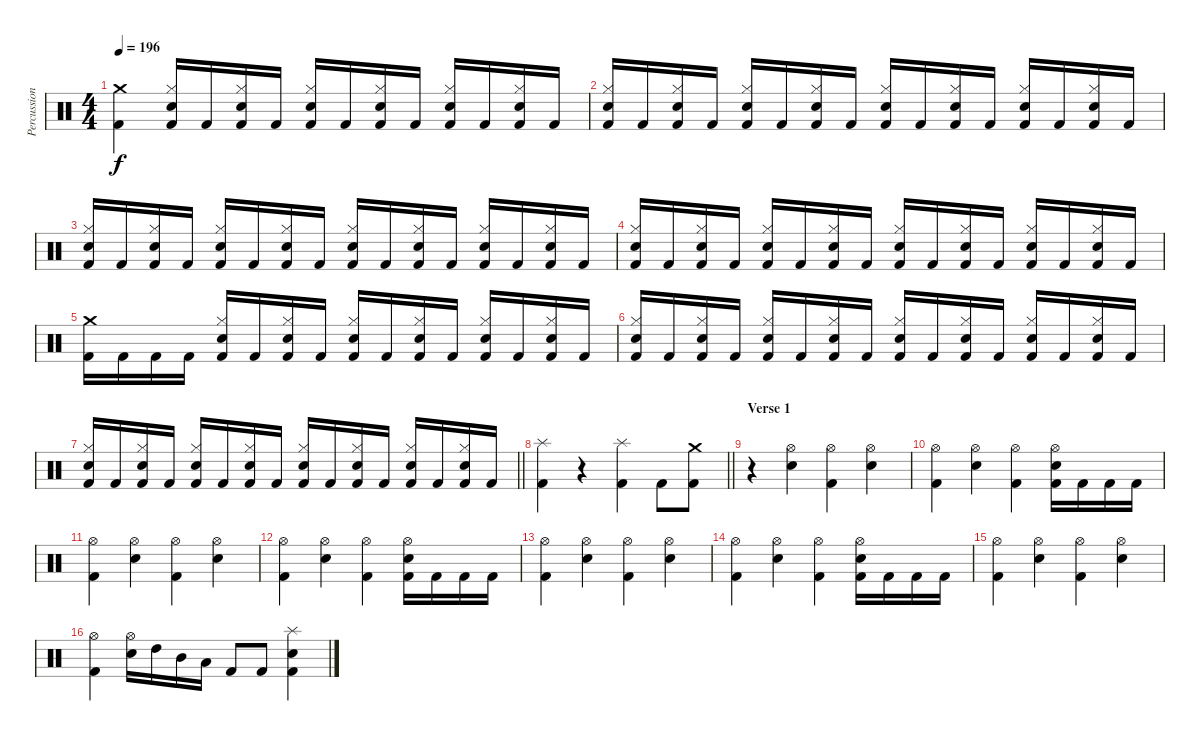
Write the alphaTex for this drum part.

\track ("Percussion" "Percussion") {instrument percussion}
\staff {score}
\articulation defaults
\ts (4 4)
\tempo 196
\clef neutral
\ks c
("Crash medium (hit)" "Kick (hit) 2").4{dy f} ("Hi-Hat (closed)" "Electric Snare (hit)" "Kick (hit) 2").16 "Kick (hit) 2".16 ("Hi-Hat (closed)" "Electric Snare (hit)" "Kick (hit) 2").16 "Kick (hit) 2".16 ("Hi-Hat (closed)" "Electric Snare (hit)" "Kick (hit) 2").16 "Kick (hit) 2".16 ("Hi-Hat (closed)" "Electric Snare (hit)" "Kick (hit) 2").16 "Kick (hit) 2".16 ("Hi-Hat (closed)" "Electric Snare (hit)" "Kick (hit) 2").16 "Kick (hit) 2".16 ("Hi-Hat (closed)" "Electric Snare (hit)" "Kick (hit) 2").16 "Kick (hit) 2".16 |
("Hi-Hat (closed)" "Electric Snare (hit)" "Kick (hit) 2").16 "Kick (hit) 2".16 ("Hi-Hat (closed)" "Electric Snare (hit)" "Kick (hit) 2").16 "Kick (hit) 2".16 ("Hi-Hat (closed)" "Electric Snare (hit)" "Kick (hit) 2").16 "Kick (hit) 2".16 ("Hi-Hat (closed)" "Electric Snare (hit)" "Kick (hit) 2").16 "Kick (hit) 2".16 ("Hi-Hat (closed)" "Electric Snare (hit)" "Kick (hit) 2").16 "Kick (hit) 2".16 ("Hi-Hat (closed)" "Electric Snare (hit)" "Kick (hit) 2").16 "Kick (hit) 2".16 ("Hi-Hat (closed)" "Electric Snare (hit)" "Kick (hit) 2").16 "Kick (hit) 2".16 ("Hi-Hat (closed)" "Electric Snare (hit)" "Kick (hit) 2").16 "Kick (hit) 2".16 |
("Hi-Hat (closed)" "Electric Snare (hit)" "Kick (hit) 2").16 "Kick (hit) 2".16 ("Hi-Hat (closed)" "Electric Snare (hit)" "Kick (hit) 2").16 "Kick (hit) 2".16 ("Hi-Hat (closed)" "Electric Snare (hit)" "Kick (hit) 2").16 "Kick (hit) 2".16 ("Hi-Hat (closed)" "Electric Snare (hit)" "Kick (hit) 2").16 "Kick (hit) 2".16 ("Hi-Hat (closed)" "Electric Snare (hit)" "Kick (hit) 2").16 "Kick (hit) 2".16 ("Hi-Hat (closed)" "Electric Snare (hit)" "Kick (hit) 2").16 "Kick (hit) 2".16 ("Hi-Hat (closed)" "Electric Snare (hit)" "Kick (hit) 2").16 "Kick (hit) 2".16 ("Hi-Hat (closed)" "Electric Snare (hit)" "Kick (hit) 2").16 "Kick (hit) 2".16 |
("Hi-Hat (closed)" "Electric Snare (hit)" "Kick (hit) 2").16 "Kick (hit) 2".16 ("Hi-Hat (closed)" "Electric Snare (hit)" "Kick (hit) 2").16 "Kick (hit) 2".16 ("Hi-Hat (closed)" "Electric Snare (hit)" "Kick (hit) 2").16 "Kick (hit) 2".16 ("Hi-Hat (closed)" "Electric Snare (hit)" "Kick (hit) 2").16 "Kick (hit) 2".16 ("Hi-Hat (closed)" "Electric Snare (hit)" "Kick (hit) 2").16 "Kick (hit) 2".16 ("Hi-Hat (closed)" "Electric Snare (hit)" "Kick (hit) 2").16 "Kick (hit) 2".16 ("Hi-Hat (closed)" "Electric Snare (hit)" "Kick (hit) 2").16 "Kick (hit) 2".16 ("Hi-Hat (closed)" "Electric Snare (hit)" "Kick (hit) 2").16 "Kick (hit) 2".16 |
("Crash medium (hit)" "Kick (hit) 2").16 "Kick (hit) 2".16 "Kick (hit) 2".16 "Kick (hit) 2".16 ("Hi-Hat (closed)" "Electric Snare (hit)" "Kick (hit) 2").16 "Kick (hit) 2".16 ("Hi-Hat (closed)" "Electric Snare (hit)" "Kick (hit) 2").16 "Kick (hit) 2".16 ("Hi-Hat (closed)" "Electric Snare (hit)" "Kick (hit) 2").16 "Kick (hit) 2".16 ("Hi-Hat (closed)" "Electric Snare (hit)" "Kick (hit) 2").16 "Kick (hit) 2".16 ("Hi-Hat (closed)" "Electric Snare (hit)" "Kick (hit) 2").16 "Kick (hit) 2".16 ("Hi-Hat (closed)" "Electric Snare (hit)" "Kick (hit) 2").16 "Kick (hit) 2".16 |
("Hi-Hat (closed)" "Electric Snare (hit)" "Kick (hit) 2").16 "Kick (hit) 2".16 ("Hi-Hat (closed)" "Electric Snare (hit)" "Kick (hit) 2").16 "Kick (hit) 2".16 ("Hi-Hat (closed)" "Electric Snare (hit)" "Kick (hit) 2").16 "Kick (hit) 2".16 ("Hi-Hat (closed)" "Electric Snare (hit)" "Kick (hit) 2").16 "Kick (hit) 2".16 ("Hi-Hat (closed)" "Electric Snare (hit)" "Kick (hit) 2").16 "Kick (hit) 2".16 ("Hi-Hat (closed)" "Electric Snare (hit)" "Kick (hit) 2").16 "Kick (hit) 2".16 ("Hi-Hat (closed)" "Electric Snare (hit)" "Kick (hit) 2").16 "Kick (hit) 2".16 ("Hi-Hat (closed)" "Electric Snare (hit)" "Kick (hit) 2").16 "Kick (hit) 2".16 |
\barLineRight lightlight
("Hi-Hat (closed)" "Electric Snare (hit)" "Kick (hit) 2").16 "Kick (hit) 2".16 ("Hi-Hat (closed)" "Electric Snare (hit)" "Kick (hit) 2").16 "Kick (hit) 2".16 ("Hi-Hat (closed)" "Electric Snare (hit)" "Kick (hit) 2").16 "Kick (hit) 2".16 ("Hi-Hat (closed)" "Electric Snare (hit)" "Kick (hit) 2").16 "Kick (hit) 2".16 ("Hi-Hat (closed)" "Electric Snare (hit)" "Kick (hit) 2").16 "Kick (hit) 2".16 ("Hi-Hat (closed)" "Electric Snare (hit)" "Kick (hit) 2").16 "Kick (hit) 2".16 ("Hi-Hat (closed)" "Electric Snare (hit)" "Kick (hit) 2").16 "Kick (hit) 2".16 ("Hi-Hat (closed)" "Electric Snare (hit)" "Kick (hit) 2").16 "Kick (hit) 2".16 |
\section ("" "")
\barLineRight lightlight
("Splash (hit)" "Kick (hit) 2").4 r.4 ("Splash (hit)" "Kick (hit) 2").4 "Kick (hit) 2".8 ("Crash medium (hit)" "Kick (hit) 2").8 |
\section ("" "Verse 1")
r.4 ("Hi-Hat (open)" "Electric Snare (hit)").4 ("Hi-Hat (open)" "Kick (hit) 2").4 ("Hi-Hat (open)" "Electric Snare (hit)").4 |
("Hi-Hat (open)" "Kick (hit) 2").4 ("Hi-Hat (open)" "Electric Snare (hit)").4 ("Hi-Hat (open)" "Kick (hit) 2").4 ("Hi-Hat (open)" "Electric Snare (hit)" "Kick (hit) 2").16 "Kick (hit) 2".16 "Kick (hit) 2".16 "Kick (hit) 2".16 |
("Hi-Hat (open)" "Kick (hit) 2").4 ("Hi-Hat (open)" "Electric Snare (hit)").4 ("Hi-Hat (open)" "Kick (hit) 2").4 ("Hi-Hat (open)" "Electric Snare (hit)").4 |
("Hi-Hat (open)" "Kick (hit) 2").4 ("Hi-Hat (open)" "Electric Snare (hit)").4 ("Hi-Hat (open)" "Kick (hit) 2").4 ("Hi-Hat (open)" "Electric Snare (hit)" "Kick (hit) 2").16 "Kick (hit) 2".16 "Kick (hit) 2".16 "Kick (hit) 2".16 |
("Hi-Hat (open)" "Kick (hit) 2").4 ("Hi-Hat (open)" "Electric Snare (hit)").4 ("Hi-Hat (open)" "Kick (hit) 2").4 ("Hi-Hat (open)" "Electric Snare (hit)").4 |
("Hi-Hat (open)" "Kick (hit) 2").4 ("Hi-Hat (open)" "Electric Snare (hit)").4 ("Hi-Hat (open)" "Kick (hit) 2").4 ("Hi-Hat (open)" "Electric Snare (hit)" "Kick (hit) 2").16 "Kick (hit) 2".16 "Kick (hit) 2".16 "Kick (hit) 2".16 |
("Hi-Hat (open)" "Kick (hit) 2").4 ("Hi-Hat (open)" "Electric Snare (hit)").4 ("Hi-Hat (open)" "Kick (hit) 2").4 ("Hi-Hat (open)" "Electric Snare (hit)").4 |
("Hi-Hat (open)" "Kick (hit) 2").4 ("Hi-Hat (open)" "Electric Snare (hit)").16 "High Tom (hit)".16 "Mid Tom (hit)".16 "Low Tom (hit)".16 "Kick (hit) 2".8 "Kick (hit) 2".8 ("Splash (hit)" "Electric Snare (hit)" "Kick (hit) 2").4
